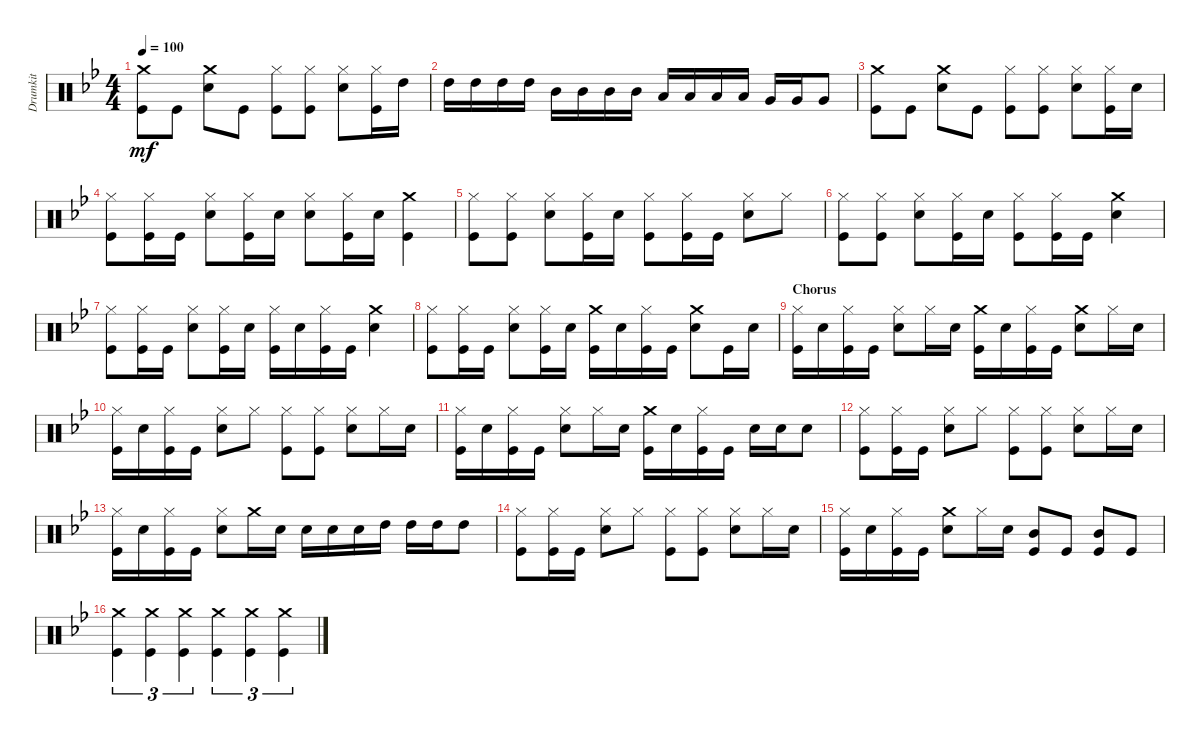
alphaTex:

\track ("Drumkit" "Drumkit") {instrument percussion}
\staff {score}
\articulation defaults
\ts (4 4)
\tempo 100
\clef neutral
\ks bb
("Crash medium (hit)" "Kick (hit)").8{dy mf} "Kick (hit)".8 ("Snare (hit) 2" "Crash medium (hit)").8 "Kick (hit)".8 ("Kick (hit)" "Hi-Hat (closed)").8 ("Kick (hit)" "Hi-Hat (closed)").8 ("Snare (hit) 2" "Hi-Hat (closed)").8 ("Kick (hit)" "Hi-Hat (closed)").16 "High Tom (hit)".16 |
"High Tom (hit)".16 "High Tom (hit)".16 "High Tom (hit)".16 "High Tom (hit)".16 "Mid Tom (hit)".16 "Mid Tom (hit)".16 "Mid Tom (hit)".16 "Mid Tom (hit)".16 "Low Tom (hit)".16 "Low Tom (hit)".16 "Low Tom (hit)".16 "Low Tom (hit)".16 "Very Low Tom (hit)".16 "Very Low Tom (hit)".16 "Very Low Tom (hit)".8 |
("Crash medium (hit)" "Kick (hit)").8 "Kick (hit)".8 ("Snare (hit) 2" "Crash medium (hit)").8 "Kick (hit)".8 ("Kick (hit)" "Hi-Hat (closed)").8 ("Kick (hit)" "Hi-Hat (closed)").8 ("Snare (hit) 2" "Hi-Hat (closed)").8 ("Hi-Hat (closed)" "Kick (hit)").16 "Snare (hit) 2".16 |
("Kick (hit)" "Hi-Hat (closed)").8 ("Hi-Hat (closed)" "Kick (hit)").16 "Kick (hit)".16 ("Snare (hit) 2" "Hi-Hat (closed)").8 ("Hi-Hat (closed)" "Kick (hit)").16 "Snare (hit) 2".16 ("Snare (hit) 2" "Hi-Hat (closed)").8 ("Hi-Hat (closed)" "Kick (hit)").16 "Snare (hit) 2".16 ("Crash medium (hit)" "Kick (hit)").4 |
("Hi-Hat (closed)" "Kick (hit)").8 ("Hi-Hat (closed)" "Kick (hit)").8 ("Snare (hit) 2" "Hi-Hat (closed)").8 ("Kick (hit)" "Hi-Hat (closed)").16 "Snare (hit) 2".16 ("Kick (hit)" "Hi-Hat (closed)").8 ("Kick (hit)" "Hi-Hat (closed)").16 "Kick (hit)".16 ("Snare (hit) 2" "Hi-Hat (closed)").8 "Hi-Hat (closed)".8 |
("Hi-Hat (closed)" "Kick (hit)").8 ("Hi-Hat (closed)" "Kick (hit)").8 ("Snare (hit) 2" "Hi-Hat (closed)").8 ("Kick (hit)" "Hi-Hat (closed)").16 "Snare (hit) 2".16 ("Kick (hit)" "Hi-Hat (closed)").8 ("Kick (hit)" "Hi-Hat (closed)").16 "Kick (hit)".16 ("Snare (hit) 2" "Crash medium (hit)").4 |
("Hi-Hat (closed)" "Kick (hit)").8 ("Kick (hit)" "Hi-Hat (closed)").16 "Kick (hit)".16 ("Snare (hit) 2" "Hi-Hat (closed)").8 ("Kick (hit)" "Hi-Hat (closed)").16 "Snare (hit) 2".16 ("Kick (hit)" "Hi-Hat (closed)").16 "Snare (hit) 2".16 ("Kick (hit)" "Hi-Hat (closed)").16 "Kick (hit)".16 ("Snare (hit) 2" "Crash medium (hit)").4 |
("Kick (hit)" "Hi-Hat (closed)").8 ("Kick (hit)" "Hi-Hat (closed)").16 "Kick (hit)".16 ("Snare (hit) 2" "Hi-Hat (closed)").8 ("Kick (hit)" "Hi-Hat (closed)").16 "Snare (hit) 2".16 ("Kick (hit)" "Crash medium (hit)").16 "Snare (hit) 2".16 ("Kick (hit)" "Hi-Hat (closed)").16 "Kick (hit)".16 ("Snare (hit) 2" "Crash medium (hit)").8 "Kick (hit)".16 "Snare (hit) 2".16 |
\section ("" "Chorus")
("Hi-Hat (closed)" "Kick (hit)").16 "Snare (hit) 2".16 ("Kick (hit)" "Hi-Hat (closed)").16 "Kick (hit)".16 ("Snare (hit) 2" "Hi-Hat (closed)").8 "Hi-Hat (closed)".16 "Snare (hit) 2".16 ("Kick (hit)" "Crash medium (hit)").16 "Snare (hit) 2".16 ("Hi-Hat (closed)" "Kick (hit)").16 "Kick (hit)".16 ("Crash medium (hit)" "Snare (hit) 2").8 "Hi-Hat (closed)".16 "Snare (hit) 2".16 |
("Hi-Hat (closed)" "Kick (hit)").16 "Snare (hit) 2".16 ("Kick (hit)" "Hi-Hat (closed)").16 "Kick (hit)".16 ("Snare (hit) 2" "Hi-Hat (closed)").8 "Hi-Hat (closed)".8 ("Hi-Hat (closed)" "Kick (hit)").8 ("Hi-Hat (closed)" "Kick (hit)").8 ("Hi-Hat (closed)" "Snare (hit) 2").8 "Hi-Hat (closed)".16 "Snare (hit) 2".16 |
("Hi-Hat (closed)" "Kick (hit)").16 "Snare (hit) 2".16 ("Kick (hit)" "Hi-Hat (closed)").16 "Kick (hit)".16 ("Snare (hit) 2" "Hi-Hat (closed)").8 "Hi-Hat (closed)".16 "Snare (hit) 2".16 ("Kick (hit)" "Crash medium (hit)").16 "Snare (hit) 2".16 ("Hi-Hat (closed)" "Kick (hit)").16 "Kick (hit)".16 "Snare (hit) 2".16 "Snare (hit) 2".16 "Snare (hit) 2".8 |
("Kick (hit)" "Hi-Hat (closed)").8 ("Hi-Hat (closed)" "Kick (hit)").16 "Kick (hit)".16 ("Snare (hit) 2" "Hi-Hat (closed)").8 "Hi-Hat (closed)".8 ("Kick (hit)" "Hi-Hat (closed)").8 ("Kick (hit)" "Hi-Hat (closed)").8 ("Snare (hit) 2" "Hi-Hat (closed)").8 "Hi-Hat (closed)".16 "Snare (hit) 2".16 |
("Kick (hit)" "Hi-Hat (closed)").16 "Snare (hit) 2".16 ("Kick (hit)" "Hi-Hat (closed)").16 "Kick (hit)".16 ("Snare (hit) 2" "Hi-Hat (closed)").8 "Crash medium (hit)".16 "Snare (hit) 2".16 "Snare (hit) 2".16 "Snare (hit) 2".16 "Snare (hit) 2".16 "High Tom (hit)".16 "High Tom (hit)".16 "High Tom (hit)".16 "High Tom (hit)".8 |
("Kick (hit)" "Hi-Hat (closed)").8 ("Hi-Hat (closed)" "Kick (hit)").16 "Kick (hit)".16 ("Snare (hit) 2" "Hi-Hat (closed)").8 "Hi-Hat (closed)".8 ("Kick (hit)" "Hi-Hat (closed)").8 ("Kick (hit)" "Hi-Hat (closed)").8 ("Snare (hit) 2" "Hi-Hat (closed)").8 "Hi-Hat (closed)".16 "Snare (hit) 2".16 |
("Kick (hit)" "Hi-Hat (closed)").16 "Snare (hit) 2".16 ("Kick (hit)" "Hi-Hat (closed)").16 "Kick (hit)".16 ("Crash medium (hit)" "Snare (hit) 2").8 "Hi-Hat (closed)".16 "Snare (hit) 2".16 ("Mid Tom (hit)" "Kick (hit)").8 "Kick (hit)".8 ("Mid Tom (hit)" "Kick (hit)").8 "Kick (hit)".8 |
("Crash medium (hit)" "Kick (hit)").4{tu (3 2)} ("Crash medium (hit)" "Kick (hit)").4{tu (3 2)} ("Crash medium (hit)" "Kick (hit)").4{tu (3 2)} ("Crash medium (hit)" "Kick (hit)").4{tu (3 2)} ("Crash medium (hit)" "Kick (hit)").4{tu (3 2)} ("Crash medium (hit)" "Kick (hit)").4{tu (3 2)}
